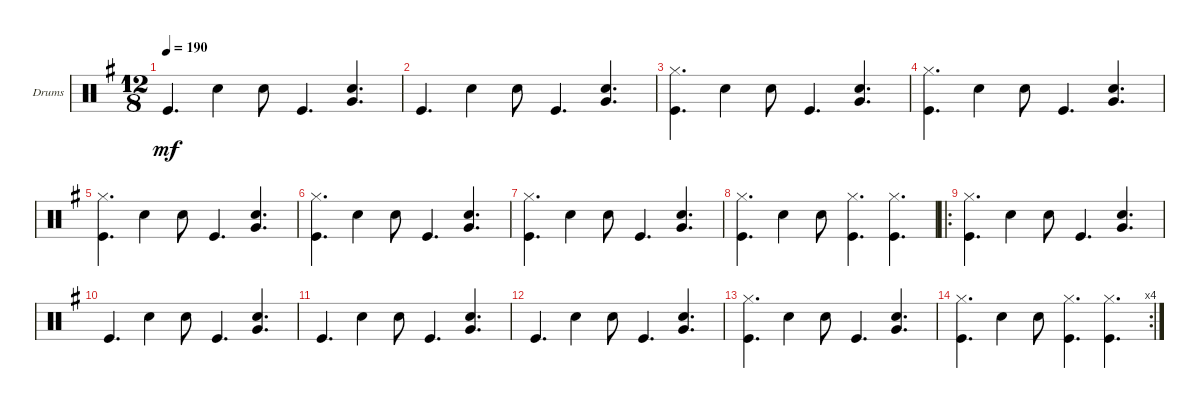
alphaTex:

\defaultSystemsLayout 4
\bracketExtendMode groupsimilarinstruments
\firstSystemTrackNameOrientation horizontal
\otherSystemsTrackNameOrientation horizontal
\track ("Drumkit" "Drums") {instrument percussion}
\staff {score}
\articulation defaults
\ts (12 8)
\tempo 190
\clef neutral
\ks g "Kick (hit)".4{d dy mf} "Snare (hit) 2".4 "Snare (hit) 2".8 "Kick (hit)".4{d}
("Very Low Tom (hit)" "Snare (hit) 2").4{d} |
"Kick (hit)".4{d} "Snare (hit) 2".4 "Snare (hit) 2".8 "Kick (hit)".4{d} ("Very Low Tom (hit)" "Snare (hit) 2").4{d} |
("Hi-Hat (closed)" "Kick (hit)").4{d} "Snare (hit) 2".4 "Snare (hit) 2".8 "Kick (hit)".4{d} ("Very Low Tom (hit)" "Snare (hit) 2").4{d} |
("Hi-Hat (closed)" "Kick (hit)").4{d} "Snare (hit) 2".4 "Snare (hit) 2".8 "Kick (hit)".4{d} ("Very Low Tom (hit)" "Snare (hit) 2").4{d} |
("Hi-Hat (closed)" "Kick (hit)").4{d} "Snare (hit) 2".4 "Snare (hit) 2".8 "Kick (hit)".4{d} ("Very Low Tom (hit)" "Snare (hit) 2").4{d} |
("Hi-Hat (closed)" "Kick (hit)").4{d} "Snare (hit) 2".4 "Snare (hit) 2".8 "Kick (hit)".4{d} ("Very Low Tom (hit)" "Snare (hit) 2").4{d} |
("Hi-Hat (closed)" "Kick (hit)").4{d} "Snare (hit) 2".4 "Snare (hit) 2".8 "Kick (hit)".4{d} ("Very Low Tom (hit)" "Snare (hit) 2").4{d} |
("Kick (hit)" "Hi-Hat (closed)").4{d} "Snare (hit) 2".4 "Snare (hit) 2".8 ("Kick (hit)" "Hi-Hat (closed)").4{d} ("Hi-Hat (closed)" "Kick (hit)").4{d} |
\ro
("Kick (hit)" "Hi-Hat (closed)").4{d} "Snare (hit) 2".4 "Snare (hit) 2".8 "Kick (hit)".4{d} ("Very Low Tom (hit)" "Snare (hit) 2").4{d} |
"Kick (hit)".4{d} "Snare (hit) 2".4 "Snare (hit) 2".8 "Kick (hit)".4{d} ("Very Low Tom (hit)" "Snare (hit) 2").4{d} |
"Kick (hit)".4{d} "Snare (hit) 2".4 "Snare (hit) 2".8 "Kick (hit)".4{d} ("Very Low Tom (hit)" "Snare (hit) 2").4{d} |
"Kick (hit)".4{d} "Snare (hit) 2".4 "Snare (hit) 2".8 "Kick (hit)".4{d} ("Very Low Tom (hit)" "Snare (hit) 2").4{d} |
("Hi-Hat (closed)" "Kick (hit)").4{d} "Snare (hit) 2".4 "Snare (hit) 2".8 "Kick (hit)".4{d} ("Very Low Tom (hit)" "Snare (hit) 2").4{d} |
\rc 4
("Kick (hit)" "Hi-Hat (closed)").4{d} "Snare (hit) 2".4 "Snare (hit) 2".8 ("Kick (hit)" "Hi-Hat (closed)").4{d} ("Hi-Hat (closed)" "Kick (hit)").4{d}
